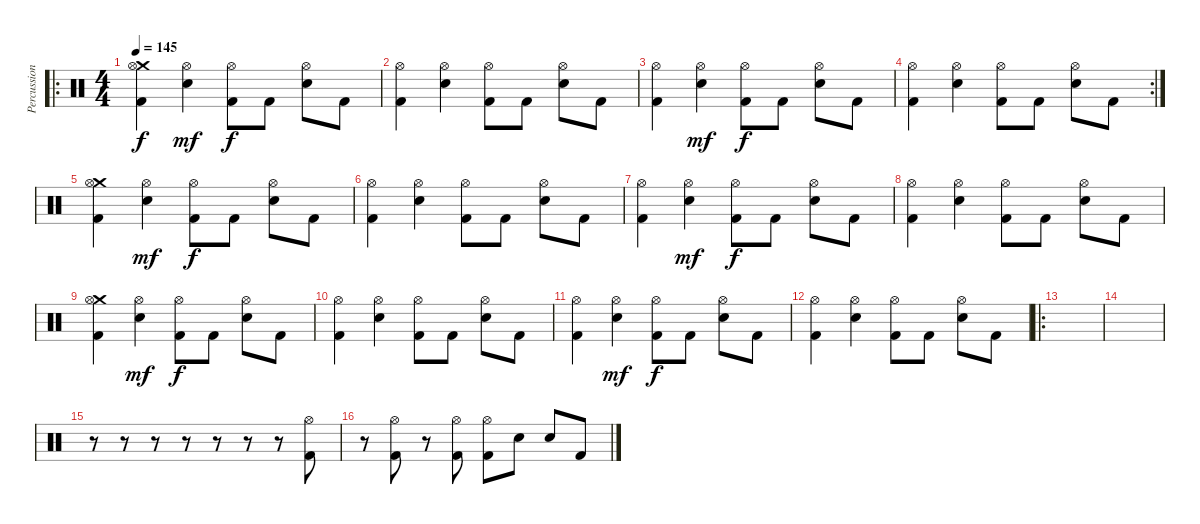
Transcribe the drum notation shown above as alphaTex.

\track ("Percussion" "Percussion") {instrument percussion}
\staff {score}
\articulation defaults
\ro
\ts (4 4)
\tempo 145
\clef neutral
\ks c
("Crash medium (hit)" "Hi-Hat (open)" "Kick (hit) 2").4{dy f} ("Hi-Hat (open)" "Electric Snare (hit)").4{dy mf} ("Hi-Hat (open)" "Kick (hit) 2").8{dy f} "Kick (hit) 2".8 ("Hi-Hat (open)" "Electric Snare (hit)").8 "Kick (hit) 2".8 |
("Hi-Hat (open)" "Kick (hit) 2").4 ("Hi-Hat (open)" "Electric Snare (hit)").4 ("Hi-Hat (open)" "Kick (hit) 2").8 "Kick (hit) 2".8 ("Hi-Hat (open)" "Electric Snare (hit)").8 "Kick (hit) 2".8 |
("Hi-Hat (open)" "Kick (hit) 2").4 ("Hi-Hat (open)" "Electric Snare (hit)").4{dy mf} ("Hi-Hat (open)" "Kick (hit) 2").8{dy f} "Kick (hit) 2".8 ("Hi-Hat (open)" "Electric Snare (hit)").8 "Kick (hit) 2".8 |
\rc 2
("Hi-Hat (open)" "Kick (hit) 2").4 ("Hi-Hat (open)" "Electric Snare (hit)").4 ("Hi-Hat (open)" "Kick (hit) 2").8 "Kick (hit) 2".8 ("Hi-Hat (open)" "Electric Snare (hit)").8 "Kick (hit) 2".8 |
("Crash medium (hit)" "Hi-Hat (open)" "Kick (hit) 2").4 ("Hi-Hat (open)" "Electric Snare (hit)").4{dy mf} ("Hi-Hat (open)" "Kick (hit) 2").8{dy f} "Kick (hit) 2".8 ("Hi-Hat (open)" "Electric Snare (hit)").8 "Kick (hit) 2".8 |
("Hi-Hat (open)" "Kick (hit) 2").4 ("Hi-Hat (open)" "Electric Snare (hit)").4 ("Hi-Hat (open)" "Kick (hit) 2").8 "Kick (hit) 2".8 ("Hi-Hat (open)" "Electric Snare (hit)").8 "Kick (hit) 2".8 |
("Hi-Hat (open)" "Kick (hit) 2").4 ("Hi-Hat (open)" "Electric Snare (hit)").4{dy mf} ("Hi-Hat (open)" "Kick (hit) 2").8{dy f} "Kick (hit) 2".8 ("Hi-Hat (open)" "Electric Snare (hit)").8 "Kick (hit) 2".8 |
("Hi-Hat (open)" "Kick (hit) 2").4 ("Hi-Hat (open)" "Electric Snare (hit)").4 ("Hi-Hat (open)" "Kick (hit) 2").8 "Kick (hit) 2".8 ("Hi-Hat (open)" "Electric Snare (hit)").8 "Kick (hit) 2".8 |
("Crash medium (hit)" "Hi-Hat (open)" "Kick (hit) 2").4 ("Hi-Hat (open)" "Electric Snare (hit)").4{dy mf} ("Hi-Hat (open)" "Kick (hit) 2").8{dy f} "Kick (hit) 2".8 ("Hi-Hat (open)" "Electric Snare (hit)").8 "Kick (hit) 2".8 |
("Hi-Hat (open)" "Kick (hit) 2").4 ("Hi-Hat (open)" "Electric Snare (hit)").4 ("Hi-Hat (open)" "Kick (hit) 2").8 "Kick (hit) 2".8 ("Hi-Hat (open)" "Electric Snare (hit)").8 "Kick (hit) 2".8 |
("Hi-Hat (open)" "Kick (hit) 2").4 ("Hi-Hat (open)" "Electric Snare (hit)").4{dy mf} ("Hi-Hat (open)" "Kick (hit) 2").8{dy f} "Kick (hit) 2".8 ("Hi-Hat (open)" "Electric Snare (hit)").8 "Kick (hit) 2".8 |
("Hi-Hat (open)" "Kick (hit) 2").4 ("Hi-Hat (open)" "Electric Snare (hit)").4 ("Hi-Hat (open)" "Kick (hit) 2").8 "Kick (hit) 2".8 ("Hi-Hat (open)" "Electric Snare (hit)").8 "Kick (hit) 2".8 |
\ro
|
|
r.8 r.8 r.8 r.8 r.8 r.8 r.8 ("Hi-Hat (open)" "Kick (hit) 2").8 |
r.8 ("Hi-Hat (open)" "Kick (hit) 2").8 r.8 ("Hi-Hat (open)" "Kick (hit) 2").8 ("Hi-Hat (open)" "Kick (hit) 2").8 "Electric Snare (hit)".8 "Electric Snare (hit)".8 "Kick (hit) 2".8
